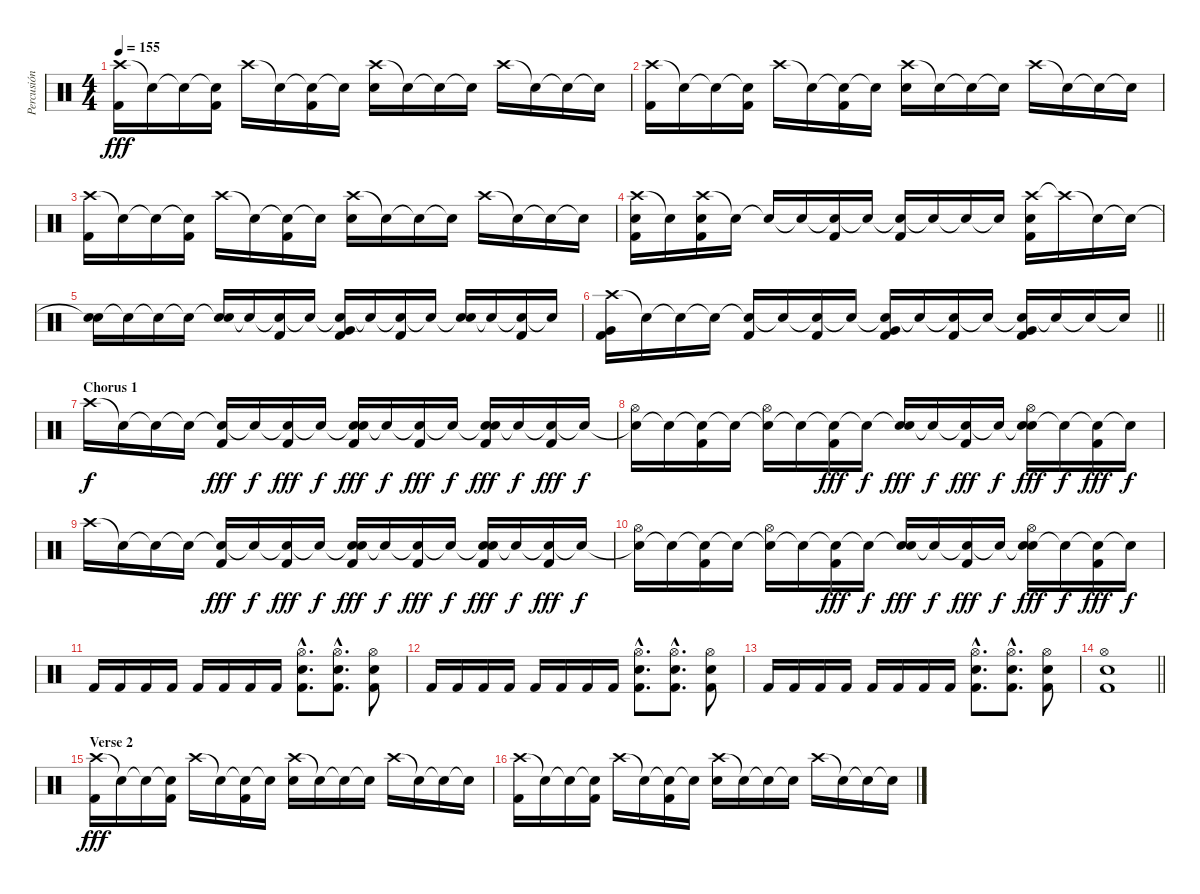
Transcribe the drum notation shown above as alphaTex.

\track ("Percusión" "Percusión") {instrument percussion}
\staff {score}
\articulation defaults
\ts (4 4)
\tempo 155
\clef neutral
\ks c
("Crash high (hit)" "Kick (hit) 2").16{dy fff} "Snare (hit)"{t}.16 "Snare (hit)"{t}.16 ("Snare (hit)"{t} "Kick (hit) 2").16 "Crash high (hit)".16 "Snare (hit)"{t}.16 ("Snare (hit)"{t} "Kick (hit) 2").16 "Snare (hit)"{t}.16 ("Crash high (hit)" "Electric Snare (hit)").16 "Snare (hit)"{t}.16 "Snare (hit)"{t}.16 "Snare (hit)"{t}.16 "Crash high (hit)".16 "Snare (hit)"{t}.16 "Snare (hit)"{t}.16 "Snare (hit)"{t}.16 |
("Crash high (hit)" "Kick (hit) 2").16 "Snare (hit)"{t}.16 "Snare (hit)"{t}.16 ("Snare (hit)"{t} "Kick (hit) 2").16 "Crash high (hit)".16 "Snare (hit)"{t}.16 ("Snare (hit)"{t} "Kick (hit) 2").16 "Snare (hit)"{t}.16 ("Crash high (hit)" "Electric Snare (hit)").16 "Snare (hit)"{t}.16 "Snare (hit)"{t}.16 "Snare (hit)"{t}.16 "Crash high (hit)".16 "Snare (hit)"{t}.16 "Snare (hit)"{t}.16 "Snare (hit)"{t}.16 |
("Crash high (hit)" "Kick (hit) 2").16 "Snare (hit)"{t}.16 "Snare (hit)"{t}.16 ("Snare (hit)"{t} "Kick (hit) 2").16 "Crash high (hit)".16 "Snare (hit)"{t}.16 ("Snare (hit)"{t} "Kick (hit) 2").16 "Snare (hit)"{t}.16 ("Crash high (hit)" "Electric Snare (hit)").16 "Snare (hit)"{t}.16 "Snare (hit)"{t}.16 "Snare (hit)"{t}.16 "Crash high (hit)".16 "Snare (hit)"{t}.16 "Snare (hit)"{t}.16 "Snare (hit)"{t}.16 |
("Crash high (hit)" "Electric Snare (hit)" "Kick (hit) 2").16 "Snare (hit)"{t}.16 ("Crash high (hit)" "Electric Snare (hit)" "Kick (hit) 2").16 "Snare (hit)"{t}.16 "Snare (hit)"{t}.16 "Snare (hit)"{t}.16 ("Snare (hit)"{t} "Kick (hit) 2").16 "Snare (hit)"{t}.16 ("Snare (hit)"{t} "Kick (hit) 2").16 "Snare (hit)"{t}.16 "Snare (hit)"{t}.16 "Snare (hit)"{t}.16 ("Crash high (hit)" "Electric Snare (hit)" "Kick (hit) 2").16 "Crash high (hit)"{t}.16 "Snare (hit)"{t}.16 "Snare (hit)"{t}.16 |
("Snare (hit)"{t} "Electric Snare (hit)").16 "Snare (hit)"{t}.16 "Snare (hit)"{t}.16 "Snare (hit)"{t}.16 ("Snare (hit)"{t} "Electric Snare (hit)").16 "Snare (hit)"{t}.16 ("Snare (hit)"{t} "Kick (hit) 2").16 "Snare (hit)"{t}.16 ("Snare (hit)"{t} "Very Low Tom (hit)" "Kick (hit) 2").16 "Snare (hit)"{t}.16 ("Snare (hit)"{t} "Kick (hit) 2").16 "Snare (hit)"{t}.16 ("Snare (hit)"{t} "Electric Snare (hit)").16 "Snare (hit)"{t}.16 ("Snare (hit)"{t} "Kick (hit) 2").16 "Snare (hit)"{t}.16 |
\barLineRight lightlight
("Crash high (hit)" "Very Low Tom (hit)" "Kick (hit) 2").16 "Snare (hit)"{t}.16 "Snare (hit)"{t}.16 "Snare (hit)"{t}.16 ("Snare (hit)"{t} "Kick (hit) 2").16 "Snare (hit)"{t}.16 ("Snare (hit)"{t} "Kick (hit) 2").16 "Snare (hit)"{t}.16 ("Snare (hit)"{t} "Very Low Tom (hit)" "Kick (hit) 2").16 "Snare (hit)"{t}.16 ("Snare (hit)"{t} "Kick (hit) 2").16 "Snare (hit)"{t}.16 ("Snare (hit)"{t} "Very Low Tom (hit)" "Kick (hit) 2").16 "Snare (hit)"{t}.16 "Snare (hit)"{t}.16 "Snare (hit)"{t}.16 |
\section ("" "Chorus 1")
"Crash high (hit)".16{dy f} "Snare (hit)"{t}.16 "Snare (hit)"{t}.16 "Snare (hit)"{t}.16 ("Snare (hit)"{t} "Kick (hit) 2").16{dy fff} "Snare (hit)"{t}.16{dy f} ("Snare (hit)"{t} "Kick (hit) 2").16{dy fff} "Snare (hit)"{t}.16{dy f} ("Snare (hit)"{t} "Electric Snare (hit)" "Kick (hit) 2").16{dy fff} "Snare (hit)"{t}.16{dy f} ("Snare (hit)"{t} "Kick (hit) 2").16{dy fff} "Snare (hit)"{t}.16{dy f} ("Snare (hit)"{t} "Electric Snare (hit)" "Kick (hit) 2").16{dy fff} "Snare (hit)"{t}.16{dy f} ("Snare (hit)"{t} "Kick (hit) 2").16{dy fff} "Snare (hit)"{t}.16{dy f} |
("Snare (hit)"{t} "Hi-Hat (open)").16 "Snare (hit)"{t}.16 ("Snare (hit)"{t} "Kick (hit) 2").16 "Snare (hit)"{t}.16 ("Snare (hit)"{t} "Hi-Hat (open)").16 "Snare (hit)"{t}.16 ("Snare (hit)"{t} "Kick (hit) 2").16{dy fff} "Snare (hit)"{t}.16{dy f} ("Snare (hit)"{t} "Electric Snare (hit)").16{dy fff} "Snare (hit)"{t}.16{dy f} ("Snare (hit)"{t} "Kick (hit) 2").16{dy fff} "Snare (hit)"{t}.16{dy f} ("Snare (hit)"{t} "Electric Snare (hit)" "Hi-Hat (open)").16{dy fff} "Snare (hit)"{t}.16{dy f} ("Snare (hit)"{t} "Kick (hit) 2").16{dy fff} "Snare (hit)"{t}.16{dy f} |
"Crash high (hit)".16 "Snare (hit)"{t}.16 "Snare (hit)"{t}.16 "Snare (hit)"{t}.16 ("Snare (hit)"{t} "Kick (hit) 2").16{dy fff} "Snare (hit)"{t}.16{dy f} ("Snare (hit)"{t} "Kick (hit) 2").16{dy fff} "Snare (hit)"{t}.16{dy f} ("Snare (hit)"{t} "Electric Snare (hit)" "Kick (hit) 2").16{dy fff} "Snare (hit)"{t}.16{dy f} ("Snare (hit)"{t} "Kick (hit) 2").16{dy fff} "Snare (hit)"{t}.16{dy f} ("Snare (hit)"{t} "Electric Snare (hit)" "Kick (hit) 2").16{dy fff} "Snare (hit)"{t}.16{dy f} ("Snare (hit)"{t} "Kick (hit) 2").16{dy fff} "Snare (hit)"{t}.16{dy f} |
("Snare (hit)"{t} "Hi-Hat (open)").16 "Snare (hit)"{t}.16 ("Snare (hit)"{t} "Kick (hit) 2").16 "Snare (hit)"{t}.16 ("Snare (hit)"{t} "Hi-Hat (open)").16 "Snare (hit)"{t}.16 ("Snare (hit)"{t} "Kick (hit) 2").16{dy fff} "Snare (hit)"{t}.16{dy f} ("Snare (hit)"{t} "Electric Snare (hit)").16{dy fff} "Snare (hit)"{t}.16{dy f} ("Snare (hit)"{t} "Kick (hit) 2").16{dy fff} "Snare (hit)"{t}.16{dy f} ("Snare (hit)"{t} "Electric Snare (hit)" "Hi-Hat (open)").16{dy fff} "Snare (hit)"{t}.16{dy f} ("Snare (hit)"{t} "Kick (hit) 2").16{dy fff} "Snare (hit)"{t}.16{dy f} |
"Kick (hit) 2".16 "Kick (hit) 2".16 "Kick (hit) 2".16 "Kick (hit) 2".16 "Kick (hit) 2".16 "Kick (hit) 2".16 "Kick (hit) 2".16 "Kick (hit) 2".16 ("Hi-Hat (open)"{hac} "Electric Snare (hit)"{hac} "Kick (hit) 2"{hac}).8{d} ("Hi-Hat (open)"{hac} "Electric Snare (hit)"{hac} "Kick (hit) 2"{hac}).8{d} ("Hi-Hat (open)" "Electric Snare (hit)" "Kick (hit) 2").8 |
"Kick (hit) 2".16 "Kick (hit) 2".16 "Kick (hit) 2".16 "Kick (hit) 2".16 "Kick (hit) 2".16 "Kick (hit) 2".16 "Kick (hit) 2".16 "Kick (hit) 2".16 ("Hi-Hat (open)"{hac} "Electric Snare (hit)"{hac} "Kick (hit) 2"{hac}).8{d} ("Hi-Hat (open)"{hac} "Electric Snare (hit)"{hac} "Kick (hit) 2"{hac}).8{d} ("Hi-Hat (open)" "Electric Snare (hit)" "Kick (hit) 2").8 |
"Kick (hit) 2".16 "Kick (hit) 2".16 "Kick (hit) 2".16 "Kick (hit) 2".16 "Kick (hit) 2".16 "Kick (hit) 2".16 "Kick (hit) 2".16 "Kick (hit) 2".16 ("Hi-Hat (open)"{hac} "Electric Snare (hit)"{hac} "Kick (hit) 2"{hac}).8{d} ("Hi-Hat (open)"{hac} "Electric Snare (hit)"{hac} "Kick (hit) 2"{hac}).8{d} ("Hi-Hat (open)" "Electric Snare (hit)" "Kick (hit) 2").8 |
\barLineRight lightlight
("Hi-Hat (open)" "Electric Snare (hit)" "Kick (hit) 2").1 |
\section ("" "Verse 2")
("Crash high (hit)" "Kick (hit) 2").16{dy fff} "Snare (hit)"{t}.16 "Snare (hit)"{t}.16 ("Snare (hit)"{t} "Kick (hit) 2").16 "Crash high (hit)".16 "Snare (hit)"{t}.16 ("Snare (hit)"{t} "Kick (hit) 2").16 "Snare (hit)"{t}.16 ("Crash high (hit)" "Electric Snare (hit)").16 "Snare (hit)"{t}.16 "Snare (hit)"{t}.16 "Snare (hit)"{t}.16 "Crash high (hit)".16 "Snare (hit)"{t}.16 "Snare (hit)"{t}.16 "Snare (hit)"{t}.16 |
("Crash high (hit)" "Kick (hit) 2").16 "Snare (hit)"{t}.16 "Snare (hit)"{t}.16 ("Snare (hit)"{t} "Kick (hit) 2").16 "Crash high (hit)".16 "Snare (hit)"{t}.16 ("Snare (hit)"{t} "Kick (hit) 2").16 "Snare (hit)"{t}.16 ("Crash high (hit)" "Electric Snare (hit)").16 "Snare (hit)"{t}.16 "Snare (hit)"{t}.16 "Snare (hit)"{t}.16 "Crash high (hit)".16 "Snare (hit)"{t}.16 "Snare (hit)"{t}.16 "Snare (hit)"{t}.16
